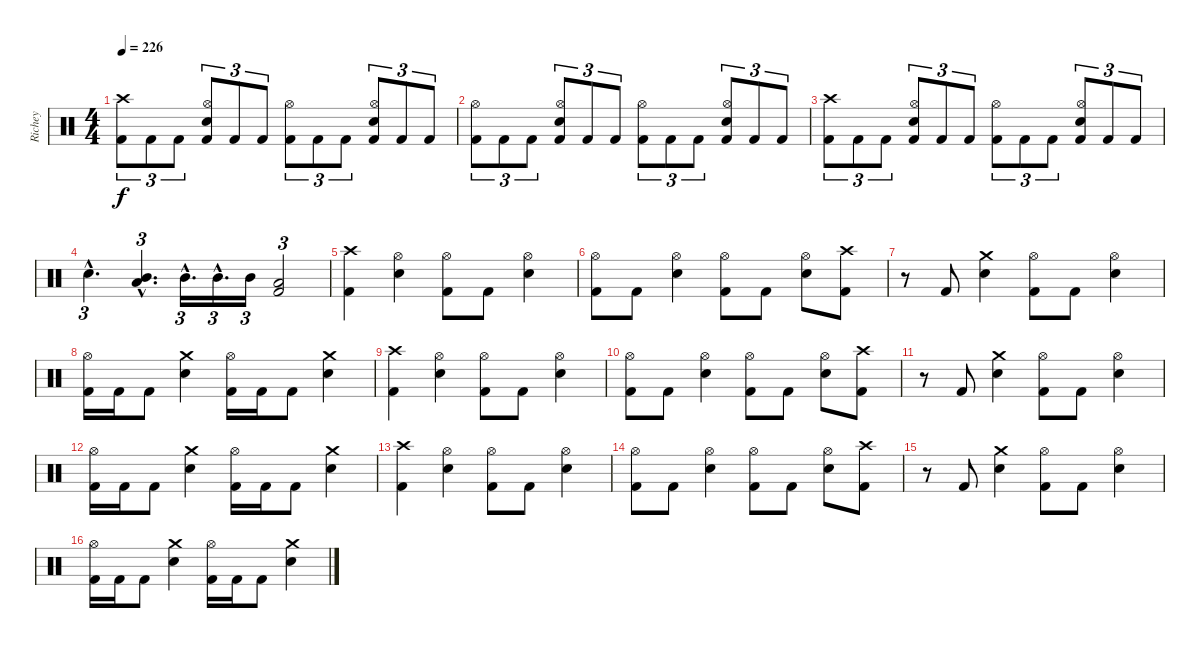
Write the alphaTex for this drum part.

\track ("Richey" "Richey") {instrument percussion}
\staff {score}
\articulation defaults
\ts (4 4)
\tempo 226
\clef neutral
\ks c
("Crash high (hit)" "Kick (hit) 2").8{tu (3 2) dy f} "Kick (hit) 2".8{tu (3 2)} "Kick (hit) 2".8{tu (3 2)} ("Hi-Hat (open)" "Snare (hit) 2" "Kick (hit) 2").8{tu (3 2)} "Kick (hit) 2".8{tu (3 2)} "Kick (hit) 2".8{tu (3 2)} ("Hi-Hat (open)" "Kick (hit) 2").8{tu (3 2)} "Kick (hit) 2".8{tu (3 2)} "Kick (hit) 2".8{tu (3 2)} ("Hi-Hat (open)" "Snare (hit) 2" "Kick (hit) 2").8{tu (3 2)} "Kick (hit) 2".8{tu (3 2)} "Kick (hit) 2".8{tu (3 2)} |
("Hi-Hat (open)" "Kick (hit) 2").8{tu (3 2)} "Kick (hit) 2".8{tu (3 2)} "Kick (hit) 2".8{tu (3 2)} ("Hi-Hat (open)" "Snare (hit) 2" "Kick (hit) 2").8{tu (3 2)} "Kick (hit) 2".8{tu (3 2)} "Kick (hit) 2".8{tu (3 2)} ("Hi-Hat (open)" "Kick (hit) 2").8{tu (3 2)} "Kick (hit) 2".8{tu (3 2)} "Kick (hit) 2".8{tu (3 2)} ("Hi-Hat (open)" "Snare (hit) 2" "Kick (hit) 2").8{tu (3 2)} "Kick (hit) 2".8{tu (3 2)} "Kick (hit) 2".8{tu (3 2)} |
("Crash high (hit)" "Kick (hit) 2").8{tu (3 2)} "Kick (hit) 2".8{tu (3 2)} "Kick (hit) 2".8{tu (3 2)} ("Hi-Hat (open)" "Snare (hit) 2" "Kick (hit) 2").8{tu (3 2)} "Kick (hit) 2".8{tu (3 2)} "Kick (hit) 2".8{tu (3 2)} ("Hi-Hat (open)" "Kick (hit) 2").8{tu (3 2)} "Kick (hit) 2".8{tu (3 2)} "Kick (hit) 2".8{tu (3 2)} ("Hi-Hat (open)" "Snare (hit) 2" "Kick (hit) 2").8{tu (3 2)} "Kick (hit) 2".8{tu (3 2)} "Kick (hit) 2".8{tu (3 2)} |
"Snare (hit) 2"{hac}.4{d tu (3 2)} ("Mid Tom (hit)"{hac} "Low Tom (hit)"{hac}).4{d tu (3 2)} "Mid Tom (hit)"{hac}.16{d tu (3 2)} "Mid Tom (hit)"{hac}.16{d tu (3 2)} "Mid Tom (hit)".16{tu (3 2)} ("Low Tom (hit)" "Kick (hit) 2").2{tu (3 2)} |
("Crash high (hit)" "Kick (hit) 2").4 ("Hi-Hat (open)" "Snare (hit) 2").4 ("Hi-Hat (open)" "Kick (hit) 2").8 "Kick (hit) 2".8 ("Hi-Hat (open)" "Snare (hit) 2").4 |
("Hi-Hat (open)" "Kick (hit) 2").8 "Kick (hit) 2".8 ("Hi-Hat (open)" "Snare (hit) 2").4 ("Hi-Hat (open)" "Kick (hit) 2").8 "Kick (hit) 2".8 ("Hi-Hat (open)" "Snare (hit) 2").8 ("Crash high (hit)" "Kick (hit) 2").8 |
r.8 "Kick (hit) 2".8 ("Crash medium (hit)" "Snare (hit) 2").4 ("Hi-Hat (open)" "Kick (hit) 2").8 "Kick (hit) 2".8 ("Hi-Hat (open)" "Snare (hit) 2").4 |
("Hi-Hat (open)" "Kick (hit) 2").16 "Kick (hit) 2".16 "Kick (hit) 2".8 ("Crash medium (hit)" "Snare (hit) 2").4 ("Hi-Hat (open)" "Kick (hit) 2").16 "Kick (hit) 2".16 "Kick (hit) 2".8 ("Crash medium (hit)" "Snare (hit) 2").4 |
("Crash high (hit)" "Kick (hit) 2").4 ("Hi-Hat (open)" "Snare (hit) 2").4 ("Hi-Hat (open)" "Kick (hit) 2").8 "Kick (hit) 2".8 ("Hi-Hat (open)" "Snare (hit) 2").4 |
("Hi-Hat (open)" "Kick (hit) 2").8 "Kick (hit) 2".8 ("Hi-Hat (open)" "Snare (hit) 2").4 ("Hi-Hat (open)" "Kick (hit) 2").8 "Kick (hit) 2".8 ("Hi-Hat (open)" "Snare (hit) 2").8 ("Crash high (hit)" "Kick (hit) 2").8 |
r.8 "Kick (hit) 2".8 ("Crash medium (hit)" "Snare (hit) 2").4 ("Hi-Hat (open)" "Kick (hit) 2").8 "Kick (hit) 2".8 ("Hi-Hat (open)" "Snare (hit) 2").4 |
("Hi-Hat (open)" "Kick (hit) 2").16 "Kick (hit) 2".16 "Kick (hit) 2".8 ("Crash medium (hit)" "Snare (hit) 2").4 ("Hi-Hat (open)" "Kick (hit) 2").16 "Kick (hit) 2".16 "Kick (hit) 2".8 ("Crash medium (hit)" "Snare (hit) 2").4 |
("Crash high (hit)" "Kick (hit) 2").4 ("Hi-Hat (open)" "Snare (hit) 2").4 ("Hi-Hat (open)" "Kick (hit) 2").8 "Kick (hit) 2".8 ("Hi-Hat (open)" "Snare (hit) 2").4 |
("Hi-Hat (open)" "Kick (hit) 2").8 "Kick (hit) 2".8 ("Hi-Hat (open)" "Snare (hit) 2").4 ("Hi-Hat (open)" "Kick (hit) 2").8 "Kick (hit) 2".8 ("Hi-Hat (open)" "Snare (hit) 2").8 ("Crash high (hit)" "Kick (hit) 2").8 |
r.8 "Kick (hit) 2".8 ("Crash medium (hit)" "Snare (hit) 2").4 ("Hi-Hat (open)" "Kick (hit) 2").8 "Kick (hit) 2".8 ("Hi-Hat (open)" "Snare (hit) 2").4 |
("Hi-Hat (open)" "Kick (hit) 2").16 "Kick (hit) 2".16 "Kick (hit) 2".8 ("Crash medium (hit)" "Snare (hit) 2").4 ("Hi-Hat (open)" "Kick (hit) 2").16 "Kick (hit) 2".16 "Kick (hit) 2".8 ("Crash medium (hit)" "Snare (hit) 2").4
